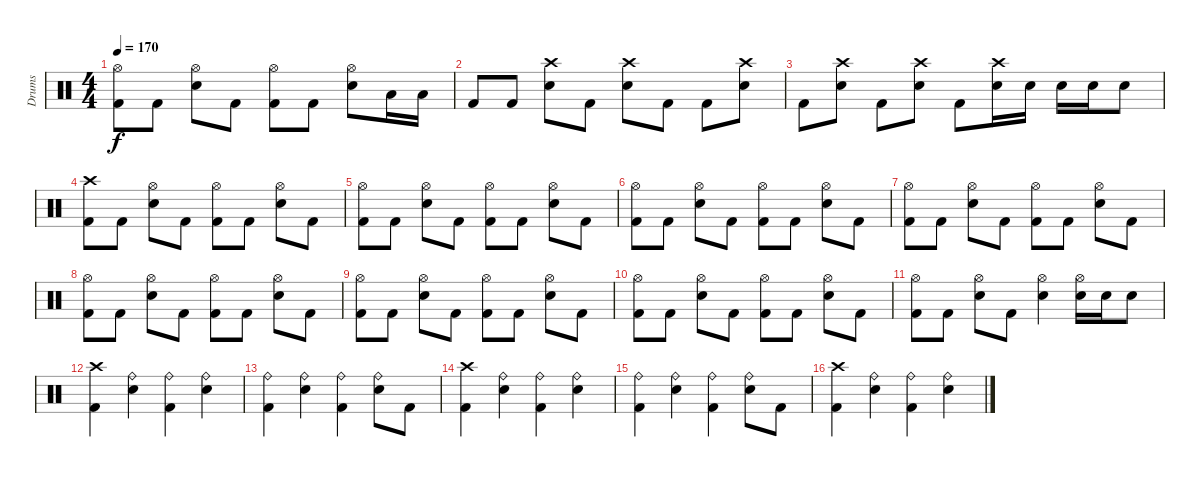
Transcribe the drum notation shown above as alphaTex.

\track ("Drums" "Drums") {instrument percussion}
\staff {score}
\articulation defaults
\ts (4 4)
\tempo 170
\clef neutral
\ks c
("Hi-Hat (open)" "Kick (hit) 2").8{dy f} "Kick (hit) 2".8 ("Hi-Hat (open)" "Electric Snare (hit)").8 "Kick (hit) 2".8 ("Hi-Hat (open)" "Kick (hit) 2").8 "Kick (hit) 2".8 ("Hi-Hat (open)" "Electric Snare (hit)").8 "Low Tom (hit)".16 "Low Tom (hit)".16 |
"Kick (hit) 2".8 "Kick (hit) 2".8 ("Crash high (hit)" "Electric Snare (hit)").8 "Kick (hit) 2".8 ("Crash high (hit)" "Electric Snare (hit)").8 "Kick (hit) 2".8 "Kick (hit) 2".8 ("Crash high (hit)" "Electric Snare (hit)").8 |
"Kick (hit) 2".8 ("Crash high (hit)" "Electric Snare (hit)").8 "Kick (hit) 2".8 ("Crash high (hit)" "Electric Snare (hit)").8 "Kick (hit) 2".8 ("Crash high (hit)" "Electric Snare (hit)").16 "Electric Snare (hit)".16 "Electric Snare (hit)".16 "Electric Snare (hit)".16 "Electric Snare (hit)".8 |
("Crash high (hit)" "Kick (hit) 2").8 "Kick (hit) 2".8 ("Hi-Hat (open)" "Electric Snare (hit)").8 "Kick (hit) 2".8 ("Hi-Hat (open)" "Kick (hit) 2").8 "Kick (hit) 2".8 ("Hi-Hat (open)" "Electric Snare (hit)").8 "Kick (hit) 2".8 |
("Hi-Hat (open)" "Kick (hit) 2").8 "Kick (hit) 2".8 ("Hi-Hat (open)" "Electric Snare (hit)").8 "Kick (hit) 2".8 ("Hi-Hat (open)" "Kick (hit) 2").8 "Kick (hit) 2".8 ("Hi-Hat (open)" "Electric Snare (hit)").8 "Kick (hit) 2".8 |
("Hi-Hat (open)" "Kick (hit) 2").8 "Kick (hit) 2".8 ("Hi-Hat (open)" "Electric Snare (hit)").8 "Kick (hit) 2".8 ("Hi-Hat (open)" "Kick (hit) 2").8 "Kick (hit) 2".8 ("Hi-Hat (open)" "Electric Snare (hit)").8 "Kick (hit) 2".8 |
("Hi-Hat (open)" "Kick (hit) 2").8 "Kick (hit) 2".8 ("Hi-Hat (open)" "Electric Snare (hit)").8 "Kick (hit) 2".8 ("Hi-Hat (open)" "Kick (hit) 2").8 "Kick (hit) 2".8 ("Hi-Hat (open)" "Electric Snare (hit)").8 "Kick (hit) 2".8 |
("Hi-Hat (open)" "Kick (hit) 2").8 "Kick (hit) 2".8 ("Hi-Hat (open)" "Electric Snare (hit)").8 "Kick (hit) 2".8 ("Hi-Hat (open)" "Kick (hit) 2").8 "Kick (hit) 2".8 ("Hi-Hat (open)" "Electric Snare (hit)").8 "Kick (hit) 2".8 |
("Hi-Hat (open)" "Kick (hit) 2").8 "Kick (hit) 2".8 ("Hi-Hat (open)" "Electric Snare (hit)").8 "Kick (hit) 2".8 ("Hi-Hat (open)" "Kick (hit) 2").8 "Kick (hit) 2".8 ("Hi-Hat (open)" "Electric Snare (hit)").8 "Kick (hit) 2".8 |
("Hi-Hat (open)" "Kick (hit) 2").8 "Kick (hit) 2".8 ("Hi-Hat (open)" "Electric Snare (hit)").8 "Kick (hit) 2".8 ("Hi-Hat (open)" "Kick (hit) 2").8 "Kick (hit) 2".8 ("Hi-Hat (open)" "Electric Snare (hit)").8 "Kick (hit) 2".8 |
("Hi-Hat (open)" "Kick (hit) 2").8 "Kick (hit) 2".8 ("Hi-Hat (open)" "Electric Snare (hit)").8 "Kick (hit) 2".8 ("Hi-Hat (open)" "Electric Snare (hit)").4 ("Hi-Hat (open)" "Electric Snare (hit)").16 "Electric Snare (hit)".16 "Electric Snare (hit)".8 |
("Crash high (hit)" "Kick (hit) 2").4 ("Ride (bell)" "Electric Snare (hit)").4 ("Ride (bell)" "Kick (hit) 2").4 ("Ride (bell)" "Electric Snare (hit)").4 |
("Ride (bell)" "Kick (hit) 2").4 ("Ride (bell)" "Electric Snare (hit)").4 ("Ride (bell)" "Kick (hit) 2").4 ("Ride (bell)" "Electric Snare (hit)").8 "Kick (hit) 2".8 |
("Crash high (hit)" "Kick (hit) 2").4 ("Ride (bell)" "Electric Snare (hit)").4 ("Ride (bell)" "Kick (hit) 2").4 ("Ride (bell)" "Electric Snare (hit)").4 |
("Ride (bell)" "Kick (hit) 2").4 ("Ride (bell)" "Electric Snare (hit)").4 ("Ride (bell)" "Kick (hit) 2").4 ("Ride (bell)" "Electric Snare (hit)").8 "Kick (hit) 2".8 |
("Crash high (hit)" "Kick (hit) 2").4 ("Ride (bell)" "Electric Snare (hit)").4 ("Ride (bell)" "Kick (hit) 2").4 ("Ride (bell)" "Electric Snare (hit)").4
